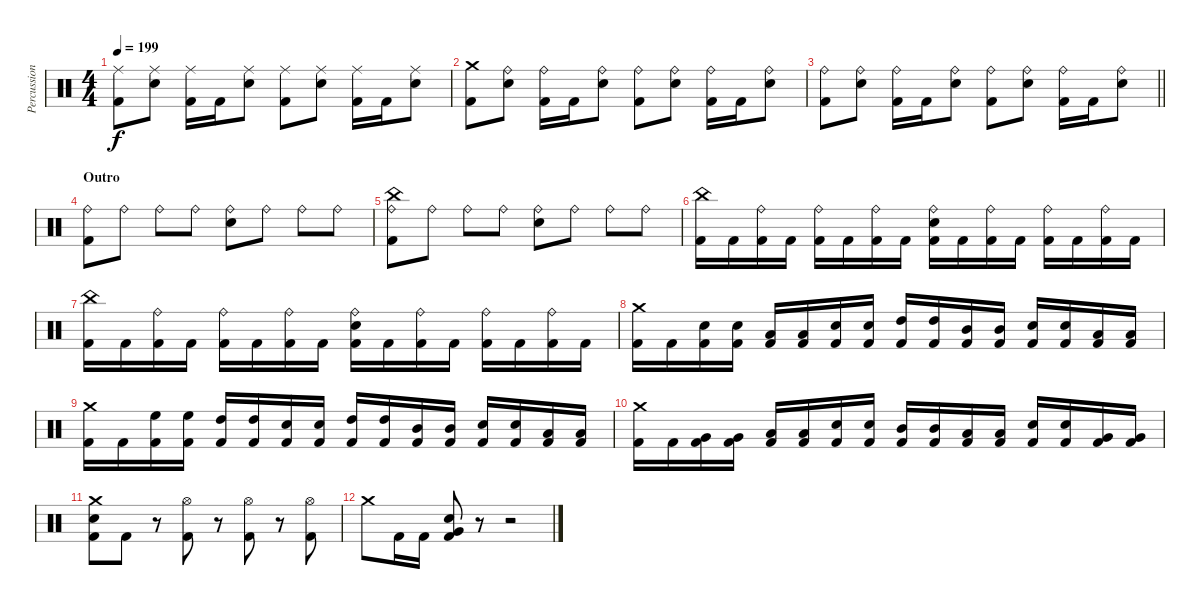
\track ("Percussion" "Percussion") {instrument percussion}
\staff {score}
\articulation defaults
\ts (4 4)
\tempo 199
\clef neutral
\ks c
("Ride (middle)" "Kick (hit) 2").8{dy f} ("Ride (middle)" "Electric Snare (hit)").8 ("Ride (middle)" "Kick (hit) 2").16 "Kick (hit) 2".16 ("Ride (middle)" "Electric Snare (hit)").8 ("Ride (middle)" "Kick (hit) 2").8 ("Ride (middle)" "Electric Snare (hit)").8 ("Ride (middle)" "Kick (hit) 2").16 "Kick (hit) 2".16 ("Ride (middle)" "Electric Snare (hit)").8 |
("Crash medium (hit)" "Kick (hit) 2").8 ("Ride (bell)" "Electric Snare (hit)").8 ("Ride (bell)" "Kick (hit) 2").16 "Kick (hit) 2".16 ("Ride (bell)" "Electric Snare (hit)").8 ("Ride (bell)" "Kick (hit) 2").8 ("Ride (bell)" "Electric Snare (hit)").8 ("Ride (bell)" "Kick (hit) 2").16 "Kick (hit) 2".16 ("Ride (bell)" "Electric Snare (hit)").8 |
\barLineRight lightlight
("Ride (bell)" "Kick (hit) 2").8 ("Ride (bell)" "Electric Snare (hit)").8 ("Ride (bell)" "Kick (hit) 2").16 "Kick (hit) 2".16 ("Ride (bell)" "Electric Snare (hit)").8 ("Ride (bell)" "Kick (hit) 2").8 ("Ride (bell)" "Electric Snare (hit)").8 ("Ride (bell)" "Kick (hit) 2").16 "Kick (hit) 2".16 ("Ride (bell)" "Electric Snare (hit)").8 |
\section ("" "Outro")
("Ride (bell)" "Kick (hit) 2").8 "Ride (bell)".8 "Ride (bell)".8 "Ride (bell)".8 ("Ride (bell)" "Electric Snare (hit)").8 "Ride (bell)".8 "Ride (bell)".8 "Ride (bell)".8 |
("China (hit)" "Ride (bell)" "Kick (hit) 2").8 "Ride (bell)".8 "Ride (bell)".8 "Ride (bell)".8 ("Ride (bell)" "Electric Snare (hit)").8 "Ride (bell)".8 "Ride (bell)".8 "Ride (bell)".8 |
("China (hit)" "Kick (hit) 2").16 "Kick (hit) 2".16 ("Ride (bell)" "Kick (hit) 2").16 "Kick (hit) 2".16 ("Ride (bell)" "Kick (hit) 2").16 "Kick (hit) 2".16 ("Ride (bell)" "Kick (hit) 2").16 "Kick (hit) 2".16 ("Ride (bell)" "Electric Snare (hit)" "Kick (hit) 2").16 "Kick (hit) 2".16 ("Ride (bell)" "Kick (hit) 2").16 "Kick (hit) 2".16 ("Ride (bell)" "Kick (hit) 2").16 "Kick (hit) 2".16 ("Ride (bell)" "Kick (hit) 2").16 "Kick (hit) 2".16 |
("China (hit)" "Kick (hit) 2").16 "Kick (hit) 2".16 ("Ride (bell)" "Kick (hit) 2").16 "Kick (hit) 2".16 ("Ride (bell)" "Kick (hit) 2").16 "Kick (hit) 2".16 ("Ride (bell)" "Kick (hit) 2").16 "Kick (hit) 2".16 ("Ride (bell)" "Electric Snare (hit)" "Kick (hit) 2").16 "Kick (hit) 2".16 ("Ride (bell)" "Kick (hit) 2").16 "Kick (hit) 2".16 ("Ride (bell)" "Kick (hit) 2").16 "Kick (hit) 2".16 ("Ride (bell)" "Kick (hit) 2").16 "Kick (hit) 2".16 |
("Crash medium (hit)" "Kick (hit) 2").16 "Kick (hit) 2".16 ("Electric Snare (hit)" "Kick (hit) 2").16 ("Electric Snare (hit)" "Kick (hit) 2").16 ("Low Tom (hit)" "Kick (hit) 2").16 ("Low Tom (hit)" "Kick (hit) 2").16 ("Electric Snare (hit)" "Kick (hit) 2").16 ("Electric Snare (hit)" "Kick (hit) 2").16 ("High Tom (hit)" "Kick (hit) 2").16 ("High Tom (hit)" "Kick (hit) 2").16 ("Mid Tom (hit)" "Kick (hit) 2").16 ("Mid Tom (hit)" "Kick (hit) 2").16 ("Electric Snare (hit)" "Kick (hit) 2").16 ("Electric Snare (hit)" "Kick (hit) 2").16 ("Low Tom (hit)" "Kick (hit) 2").16 ("Low Tom (hit)" "Kick (hit) 2").16 |
("Crash medium (hit)" "Kick (hit) 2").16 "Kick (hit) 2".16 ("High Floor Tom (hit)" "Kick (hit) 2").16 ("High Floor Tom (hit)" "Kick (hit) 2").16 ("High Tom (hit)" "Kick (hit) 2").16 ("High Tom (hit)" "Kick (hit) 2").16 ("Electric Snare (hit)" "Kick (hit) 2").16 ("Electric Snare (hit)" "Kick (hit) 2").16 ("High Tom (hit)" "Kick (hit) 2").16 ("High Tom (hit)" "Kick (hit) 2").16 ("Mid Tom (hit)" "Kick (hit) 2").16 ("Mid Tom (hit)" "Kick (hit) 2").16 ("Electric Snare (hit)" "Kick (hit) 2").16 ("Electric Snare (hit)" "Kick (hit) 2").16 ("Low Tom (hit)" "Kick (hit) 2").16 ("Low Tom (hit)" "Kick (hit) 2").16 |
("Crash medium (hit)" "Kick (hit) 2").16 "Kick (hit) 2".16 ("Very Low Tom (hit)" "Kick (hit) 2").16 ("Very Low Tom (hit)" "Kick (hit) 2").16 ("Low Floor Tom (hit)" "Kick (hit) 2").16 ("Low Floor Tom (hit)" "Kick (hit) 2").16 ("Electric Snare (hit)" "Kick (hit) 2").16 ("Electric Snare (hit)" "Kick (hit) 2").16 ("Mid Tom (hit)" "Kick (hit) 2").16 ("Mid Tom (hit)" "Kick (hit) 2").16 ("Low Tom (hit)" "Kick (hit) 2").16 ("Low Tom (hit)" "Kick (hit) 2").16 ("Electric Snare (hit)" "Kick (hit) 2").16 ("Electric Snare (hit)" "Kick (hit) 2").16 ("Very Low Tom (hit)" "Kick (hit) 2").16 ("Very Low Tom (hit)" "Kick (hit) 2").16 |
("Crash medium (hit)" "Electric Snare (hit)" "Kick (hit) 2").8 "Kick (hit) 2".8 r.8 ("Hi-Hat (open)" "Kick (hit) 2").8 r.8 ("Hi-Hat (open)" "Kick (hit) 2").8 r.8 ("Hi-Hat (open)" "Kick (hit) 2").8 |
"Crash medium (hit)".8 "Kick (hit) 2".16 "Kick (hit) 2".16 ("Very Low Tom (hit)" "Electric Snare (hit)" "Kick (hit) 2").8 r.8 r.2
